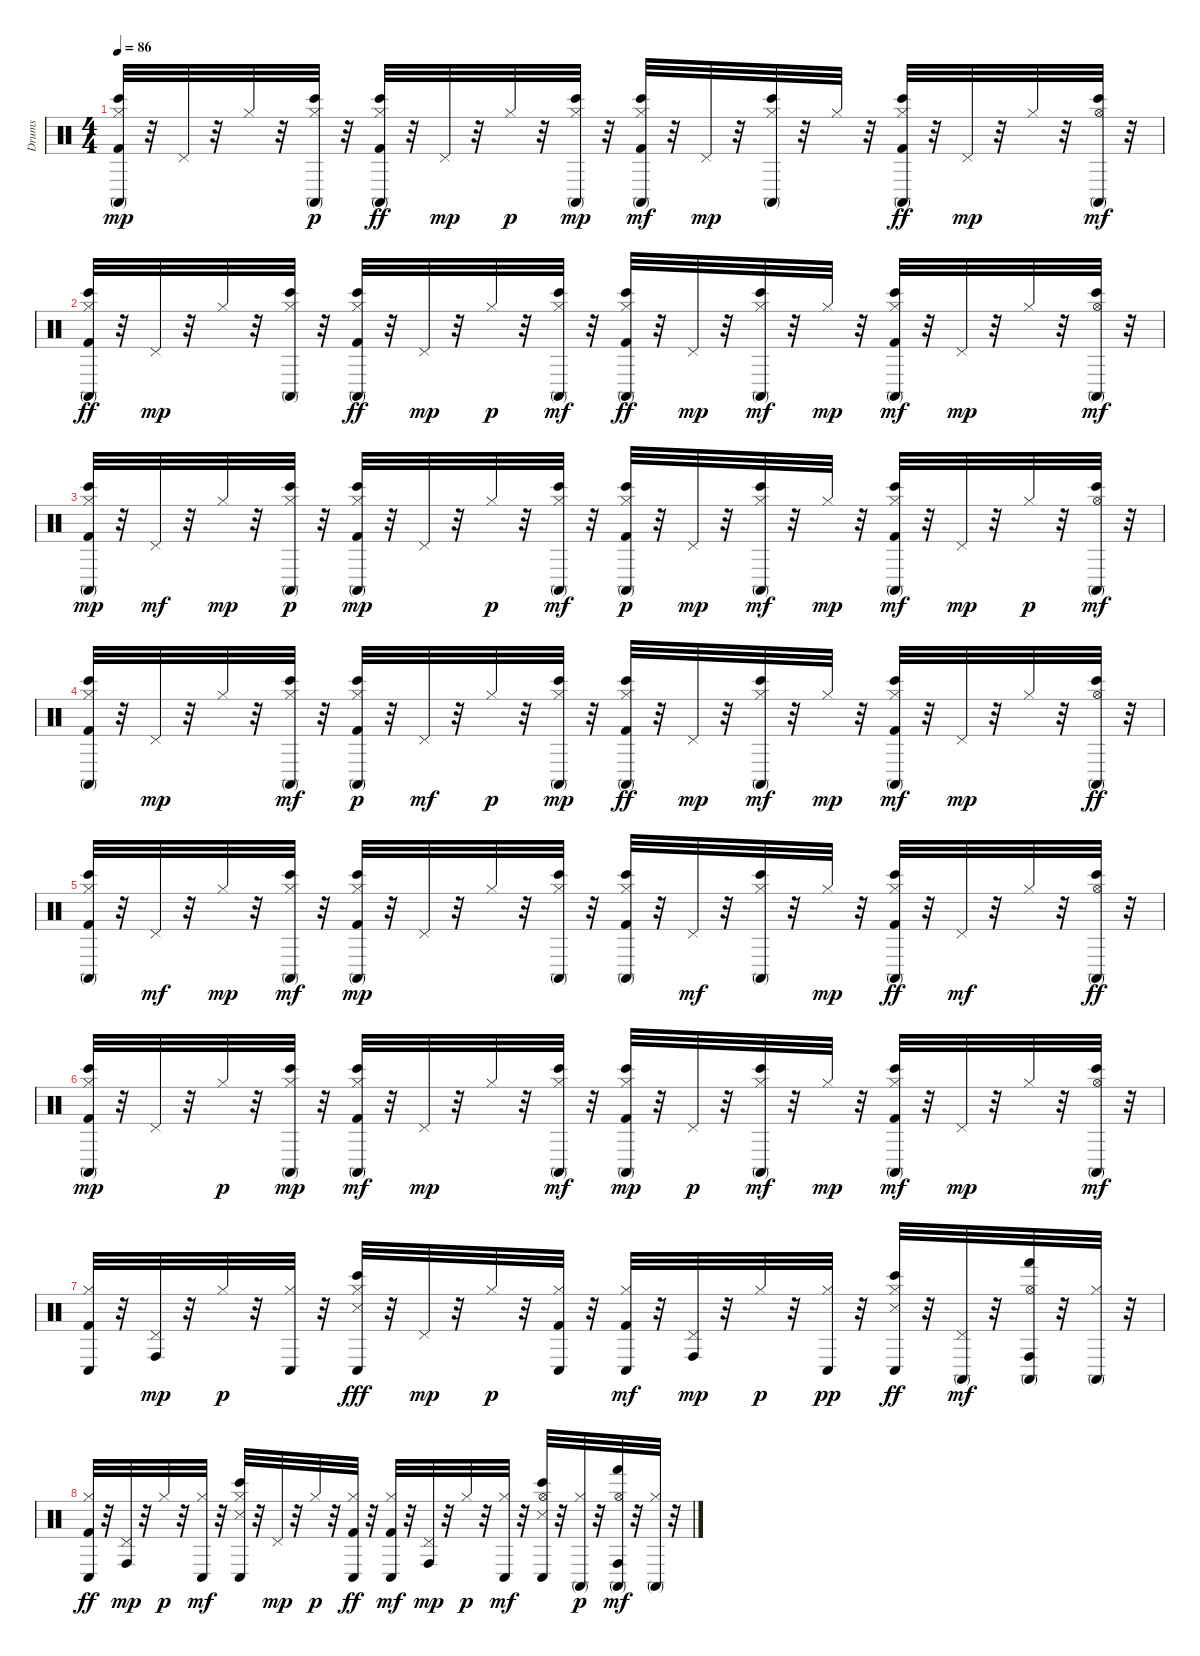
\track ("Drums" "Drums") {instrument percussion}
\staff {score}
\articulation defaults
\ts (4 4)
\tempo 86
\clef neutral
\ks c
("Kick (hit) 2" "Hi-Hat (closed)" "Bongo High (hit)" "Conga high (mute)").32{dy mp} r.32 "Pedal Hi-Hat (hit)".32 r.32 "Hi-Hat (closed)".32 r.32 ("Conga high (mute)" "Bongo High (hit)" "Hi-Hat (closed)").32{dy p} r.32 ("Conga high (mute)" "Bongo High (hit)" "Kick (hit) 2" "Hi-Hat (closed)").32{dy ff} r.32 "Pedal Hi-Hat (hit)".32{dy mp} r.32 "Hi-Hat (closed)".32{dy p} r.32 ("Conga high (mute)" "Bongo High (hit)" "Hi-Hat (closed)").32{dy mp} r.32 ("Conga high (mute)" "Bongo High (hit)" "Hi-Hat (closed)" "Kick (hit) 2").32{dy mf} r.32 "Pedal Hi-Hat (hit)".32{dy mp} r.32 ("Conga high (mute)" "Hi-Hat (closed)" "Bongo High (hit)").32 r.32 "Hi-Hat (closed)".32 r.32 ("Conga high (mute)" "Bongo High (hit)" "Kick (hit) 2" "Hi-Hat (closed)").32{dy ff} r.32 "Pedal Hi-Hat (hit)".32{dy mp} r.32 "Hi-Hat (closed)".32 r.32 ("Conga high (mute)" "Hi-Hat (open)" "Bongo High (hit)").32{dy mf} r.32 |
("Hi-Hat (closed)" "Bongo High (hit)" "Conga high (mute)" "Kick (hit) 2").32{dy ff} r.32 "Pedal Hi-Hat (hit)".32{dy mp} r.32 "Hi-Hat (closed)".32 r.32 ("Bongo High (hit)" "Conga high (mute)" "Hi-Hat (closed)").32 r.32 ("Bongo High (hit)" "Conga high (mute)" "Hi-Hat (closed)" "Kick (hit) 2").32{dy ff} r.32 "Pedal Hi-Hat (hit)".32{dy mp} r.32 "Hi-Hat (closed)".32{dy p} r.32 ("Hi-Hat (closed)" "Bongo High (hit)" "Conga high (mute)").32{dy mf} r.32 ("Bongo High (hit)" "Conga high (mute)" "Hi-Hat (closed)" "Kick (hit) 2").32{dy ff} r.32 "Pedal Hi-Hat (hit)".32{dy mp} r.32 ("Hi-Hat (closed)" "Bongo High (hit)" "Conga high (mute)").32{dy mf} r.32 "Hi-Hat (closed)".32{dy mp} r.32 ("Conga high (mute)" "Bongo High (hit)" "Kick (hit) 2" "Hi-Hat (closed)").32{dy mf} r.32 "Pedal Hi-Hat (hit)".32{dy mp} r.32 "Hi-Hat (closed)".32 r.32 ("Hi-Hat (open)" "Bongo High (hit)" "Conga high (mute)").32{dy mf} r.32 |
("Conga high (mute)" "Bongo High (hit)" "Kick (hit) 2" "Hi-Hat (closed)").32{dy mp} r.32 "Pedal Hi-Hat (hit)".32{dy mf} r.32 "Hi-Hat (closed)".32{dy mp} r.32 ("Bongo High (hit)" "Conga high (mute)" "Hi-Hat (closed)").32{dy p} r.32 ("Hi-Hat (closed)" "Kick (hit) 2" "Bongo High (hit)" "Conga high (mute)").32{dy mp} r.32 "Pedal Hi-Hat (hit)".32 r.32 "Hi-Hat (closed)".32{dy p} r.32 ("Hi-Hat (closed)" "Conga high (mute)" "Bongo High (hit)").32{dy mf} r.32 ("Kick (hit) 2" "Hi-Hat (closed)" "Conga high (mute)" "Bongo High (hit)").32{dy p} r.32 "Pedal Hi-Hat (hit)".32{dy mp} r.32 ("Hi-Hat (closed)" "Bongo High (hit)" "Conga high (mute)").32{dy mf} r.32 "Hi-Hat (closed)".32{dy mp} r.32 ("Kick (hit) 2" "Bongo High (hit)" "Conga high (mute)" "Hi-Hat (closed)").32{dy mf} r.32 "Pedal Hi-Hat (hit)".32{dy mp} r.32 "Hi-Hat (closed)".32{dy p} r.32 ("Bongo High (hit)" "Conga high (mute)" "Hi-Hat (open)").32{dy mf} r.32 |
("Bongo High (hit)" "Conga high (mute)" "Kick (hit) 2" "Hi-Hat (closed)").32 r.32 "Pedal Hi-Hat (hit)".32{dy mp} r.32 "Hi-Hat (closed)".32 r.32 ("Hi-Hat (closed)" "Conga high (mute)" "Bongo High (hit)").32{dy mf} r.32 ("Kick (hit) 2" "Conga high (mute)" "Bongo High (hit)" "Hi-Hat (closed)").32{dy p} r.32 "Pedal Hi-Hat (hit)".32{dy mf} r.32 "Hi-Hat (closed)".32{dy p} r.32 ("Conga high (mute)" "Bongo High (hit)" "Hi-Hat (closed)").32{dy mp} r.32 ("Bongo High (hit)" "Conga high (mute)" "Kick (hit) 2" "Hi-Hat (closed)").32{dy ff} r.32 "Pedal Hi-Hat (hit)".32{dy mp} r.32 ("Bongo High (hit)" "Hi-Hat (closed)" "Conga high (mute)").32{dy mf} r.32 "Hi-Hat (closed)".32{dy mp} r.32 ("Kick (hit) 2" "Hi-Hat (closed)" "Bongo High (hit)" "Conga high (mute)").32{dy mf} r.32 "Pedal Hi-Hat (hit)".32{dy mp} r.32 "Hi-Hat (closed)".32 r.32 ("Conga high (mute)" "Bongo High (hit)" "Hi-Hat (open)").32{dy ff} r.32 |
("Hi-Hat (closed)" "Bongo High (hit)" "Conga high (mute)" "Kick (hit) 2").32 r.32 "Pedal Hi-Hat (hit)".32{dy mf} r.32 "Hi-Hat (closed)".32{dy mp} r.32 ("Hi-Hat (closed)" "Conga high (mute)" "Bongo High (hit)").32{dy mf} r.32 ("Kick (hit) 2" "Bongo High (hit)" "Hi-Hat (closed)" "Conga high (mute)").32{dy mp} r.32 "Pedal Hi-Hat (hit)".32 r.32 "Hi-Hat (closed)".32 r.32 ("Hi-Hat (closed)" "Conga high (mute)" "Bongo High (hit)").32 r.32 ("Hi-Hat (closed)" "Kick (hit) 2" "Conga high (mute)" "Bongo High (hit)").32 r.32 "Pedal Hi-Hat (hit)".32{dy mf} r.32 ("Hi-Hat (closed)" "Bongo High (hit)" "Conga high (mute)").32 r.32 "Hi-Hat (closed)".32{dy mp} r.32 ("Conga high (mute)" "Bongo High (hit)" "Kick (hit) 2" "Hi-Hat (closed)").32{dy ff} r.32 "Pedal Hi-Hat (hit)".32{dy mf} r.32 "Hi-Hat (closed)".32 r.32 ("Conga high (mute)" "Bongo High (hit)" "Hi-Hat (open)").32{dy ff} r.32 |
("Conga high (mute)" "Kick (hit) 2" "Bongo High (hit)" "Hi-Hat (closed)").32{dy mp} r.32 "Pedal Hi-Hat (hit)".32 r.32 "Hi-Hat (closed)".32{dy p} r.32 ("Bongo High (hit)" "Conga high (mute)" "Hi-Hat (closed)").32{dy mp} r.32 ("Bongo High (hit)" "Conga high (mute)" "Hi-Hat (closed)" "Kick (hit) 2").32{dy mf} r.32 "Pedal Hi-Hat (hit)".32{dy mp} r.32 "Hi-Hat (closed)".32 r.32 ("Conga high (mute)" "Hi-Hat (closed)" "Bongo High (hit)").32{dy mf} r.32 ("Bongo High (hit)" "Kick (hit) 2" "Conga high (mute)" "Hi-Hat (closed)").32{dy mp} r.32 "Pedal Hi-Hat (hit)".32{dy p} r.32 ("Conga high (mute)" "Hi-Hat (closed)" "Bongo High (hit)").32{dy mf} r.32 "Hi-Hat (closed)".32{dy mp} r.32 ("Conga high (mute)" "Bongo High (hit)" "Kick (hit) 2" "Hi-Hat (closed)").32{dy mf} r.32 "Pedal Hi-Hat (hit)".32{dy mp} r.32 "Hi-Hat (closed)".32 r.32 ("Hi-Hat (open)" "Bongo High (hit)" "Conga high (mute)").32{dy mf} r.32 |
("Kick (hit) 2" "Conga low (hit)" "Hi-Hat (closed)").32 r.32 ("Pedal Hi-Hat (hit)" "Conga high (hit)").32{dy mp} r.32 "Hi-Hat (closed)".32{dy p} r.32 ("Conga low (hit)" "Hi-Hat (closed)").32 r.32 ("Bongo High (hit)" "Conga low (hit)" "Hi-Hat (closed)" "Snare (side stick) 3").32{dy fff} r.32 "Pedal Hi-Hat (hit)".32{dy mp} r.32 "Hi-Hat (closed)".32{dy p} r.32 ("Conga low (hit)" "Kick (hit) 2" "Hi-Hat (closed)").32 r.32 ("Conga low (hit)" "Kick (hit) 2" "Hi-Hat (closed)").32{dy mf} r.32 ("Pedal Hi-Hat (hit)" "Conga high (hit)").32{dy mp} r.32 "Hi-Hat (closed)".32{dy p} r.32 ("Conga low (hit)" "Hi-Hat (closed)").32{dy pp} r.32 ("Bongo High (hit)" "Conga low (hit)" "Snare (side stick) 3" "Hi-Hat (closed)").32{dy ff} r.32 ("Conga high (mute)" "Pedal Hi-Hat (hit)").32{dy mf} r.32 ("Conga high (mute)" "Hi-Hat (open)" "Conga high (hit)" "Hand (hit)").32 r.32 ("Hi-Hat (closed)" "Conga high (mute)").32 r.32 |
("Hi-Hat (closed)" "Kick (hit) 2" "Conga low (hit)").32{dy ff} r.32 ("Pedal Hi-Hat (hit)" "Conga high (hit)").32{dy mp} r.32 "Hi-Hat (closed)".32{dy p} r.32 ("Hi-Hat (closed)" "Conga low (hit)").32{dy mf} r.32 ("Snare (side stick) 3" "Hi-Hat (closed)" "Conga low (hit)" "Bongo High (hit)").32 r.32 "Pedal Hi-Hat (hit)".32{dy mp} r.32 "Hi-Hat (closed)".32{dy p} r.32 ("Hi-Hat (closed)" "Conga low (hit)" "Kick (hit) 2").32{dy ff} r.32 ("Conga low (hit)" "Kick (hit) 2" "Hi-Hat (closed)").32{dy mf} r.32 ("Pedal Hi-Hat (hit)" "Conga high (hit)").32{dy mp} r.32 "Hi-Hat (closed)".32{dy p} r.32 ("Hi-Hat (closed)" "Conga low (hit)").32{dy mf} r.32 ("Conga low (hit)" "Snare (side stick) 3" "Bongo High (hit)" "Hi-Hat (open)").32 r.32 ("Conga high (mute)" "Hi-Hat (closed)").32{dy p} r.32 ("Hi-Hat (open)" "Conga high (hit)" "Conga high (mute)" "Hand (hit)").32{dy mf} r.32 ("Hi-Hat (closed)" "Conga high (mute)").32 r.32
